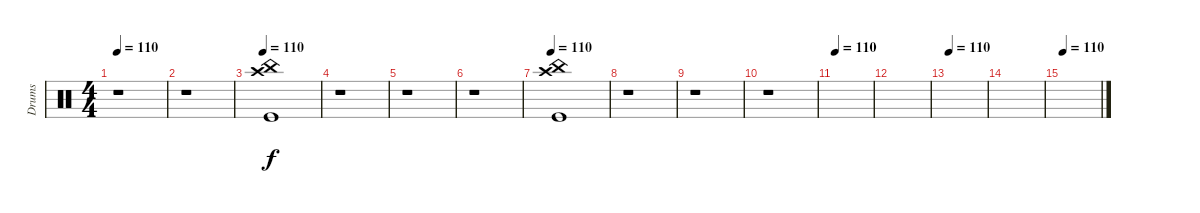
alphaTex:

\track ("Drums" "Drums") {instrument percussion}
\staff {score}
\articulation defaults
\ts (4 4)
\tempo 110
\clef neutral
\ks c
r.1{dy f} |
r.1 |
\tempo 110
("Crash high (hit)" "China (hit)" "Kick (hit)").1 |
r.1 |
r.1 |
r.1 |
\tempo 110
("Crash high (hit)" "China (hit)" "Kick (hit)").1 |
r.1 |
r.1 |
r.1 |
\tempo 110
|
|
\tempo 110
|
|
\tempo 110
